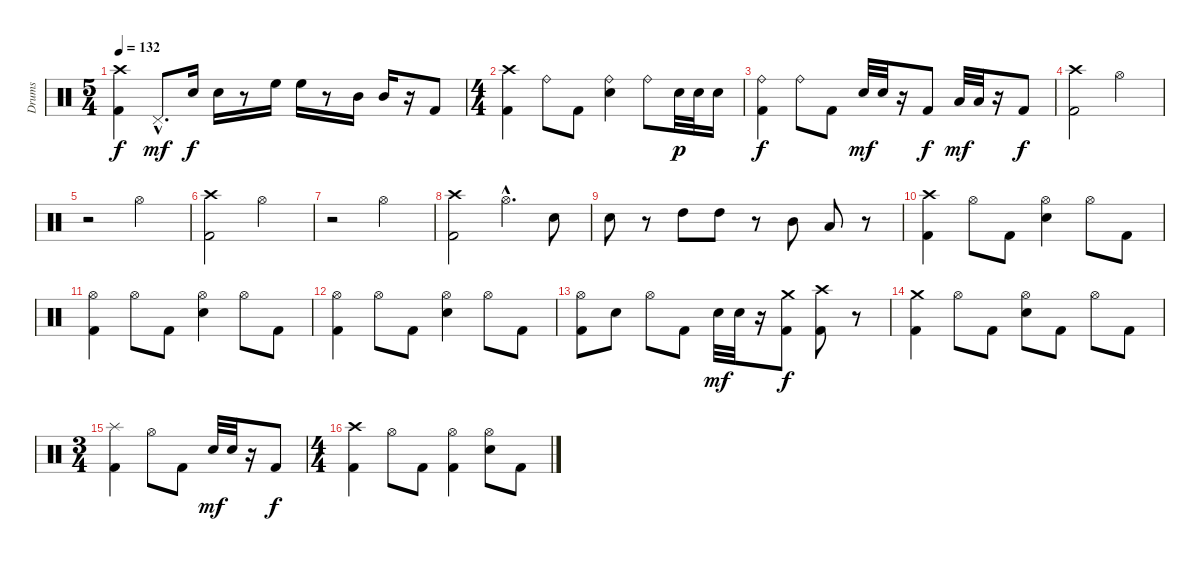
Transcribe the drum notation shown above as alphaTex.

\track ("Drums" "Drums") {instrument percussion}
\staff {score}
\articulation defaults
\ts (5 4)
\tempo 132
\clef neutral
\ks c
("Crash high (hit)" "Kick (hit) 2").4{dy f} "Pedal Hi-Hat (hit)"{hac}.8{d dy mf} "Electric Snare (hit)".16{dy f} "Electric Snare (hit)".16 r.8 "High Floor Tom (hit)".16 "High Floor Tom (hit)".16 r.8 "Mid Tom (hit)".16 "Mid Tom (hit)".16 r.16 "Kick (hit) 2".8 |
\ts (4 4)
("Crash high (hit)" "Kick (hit) 2").4 "Ride (bell)".8 "Kick (hit) 2".8 ("Ride (bell)" "Electric Snare (hit)").4 "Ride (bell)".8 "Electric Snare (hit)".32{dy p} "Electric Snare (hit)".32 "Electric Snare (hit)".16 |
("Ride (bell)" "Kick (hit) 2").4{dy f} "Ride (bell)".8 "Kick (hit) 2".8 "Electric Snare (hit)".32{dy mf} "Electric Snare (hit)".32 r.16 "Kick (hit) 2".8{dy f} "Low Tom (hit)".32{dy mf} "Low Tom (hit)".32 r.16 "Kick (hit) 2".8{dy f} |
("Kick (hit) 2" "Crash high (hit)").2 "Hi-Hat (open)".2 |
r.2 "Hi-Hat (open)".2 |
("Crash high (hit)" "Kick (hit) 2").2 "Hi-Hat (open)".2 |
r.2 "Hi-Hat (open)".2 |
("Crash high (hit)" "Kick (hit) 2").2 "Hi-Hat (open)"{hac}.4{d} "Electric Snare (hit)".8 |
"Electric Snare (hit)".8 r.8 "High Tom (hit)".8 "High Tom (hit)".8 r.8 "Mid Tom (hit)".8 "Low Tom (hit)".8 r.8 |
("Kick (hit) 2" "Crash high (hit)").4 "Hi-Hat (open)".8 "Kick (hit) 2".8 ("Electric Snare (hit)" "Hi-Hat (open)").4 "Hi-Hat (open)".8 "Kick (hit) 2".8 |
("Hi-Hat (open)" "Kick (hit) 2").4 "Hi-Hat (open)".8 "Kick (hit) 2".8 ("Hi-Hat (open)" "Electric Snare (hit)").4 "Hi-Hat (open)".8 "Kick (hit) 2".8 |
("Kick (hit) 2" "Hi-Hat (open)").4 "Hi-Hat (open)".8 "Kick (hit) 2".8 ("Hi-Hat (open)" "Electric Snare (hit)").4 "Hi-Hat (open)".8 "Kick (hit) 2".8 |
("Hi-Hat (open)" "Kick (hit) 2").8 "Electric Snare (hit)".8 "Hi-Hat (open)".8 "Kick (hit) 2".8 "Electric Snare (hit)".32{dy mf} "Electric Snare (hit)".32 r.16 ("Kick (hit) 2" "Crash medium (hit)").8{dy f} ("Crash high (hit)" "Kick (hit) 2").8 r.8 |
("Kick (hit) 2" "Crash medium (hit)").4 "Hi-Hat (open)".8 "Kick (hit) 2".8 ("Electric Snare (hit)" "Hi-Hat (open)").8 "Kick (hit) 2".8 "Hi-Hat (open)".8 "Kick (hit) 2".8 |
\ts (3 4)
("Kick (hit) 2" "Splash (hit)").4 "Hi-Hat (open)".8 "Kick (hit) 2".8 "Electric Snare (hit)".32{dy mf} "Electric Snare (hit)".32 r.16 "Kick (hit) 2".8{dy f} |
\ts (4 4)
("Kick (hit) 2" "Crash high (hit)").4 "Hi-Hat (open)".8 "Kick (hit) 2".8 ("Hi-Hat (open)" "Kick (hit) 2").4 ("Hi-Hat (open)" "Electric Snare (hit)").8 "Kick (hit) 2".8
